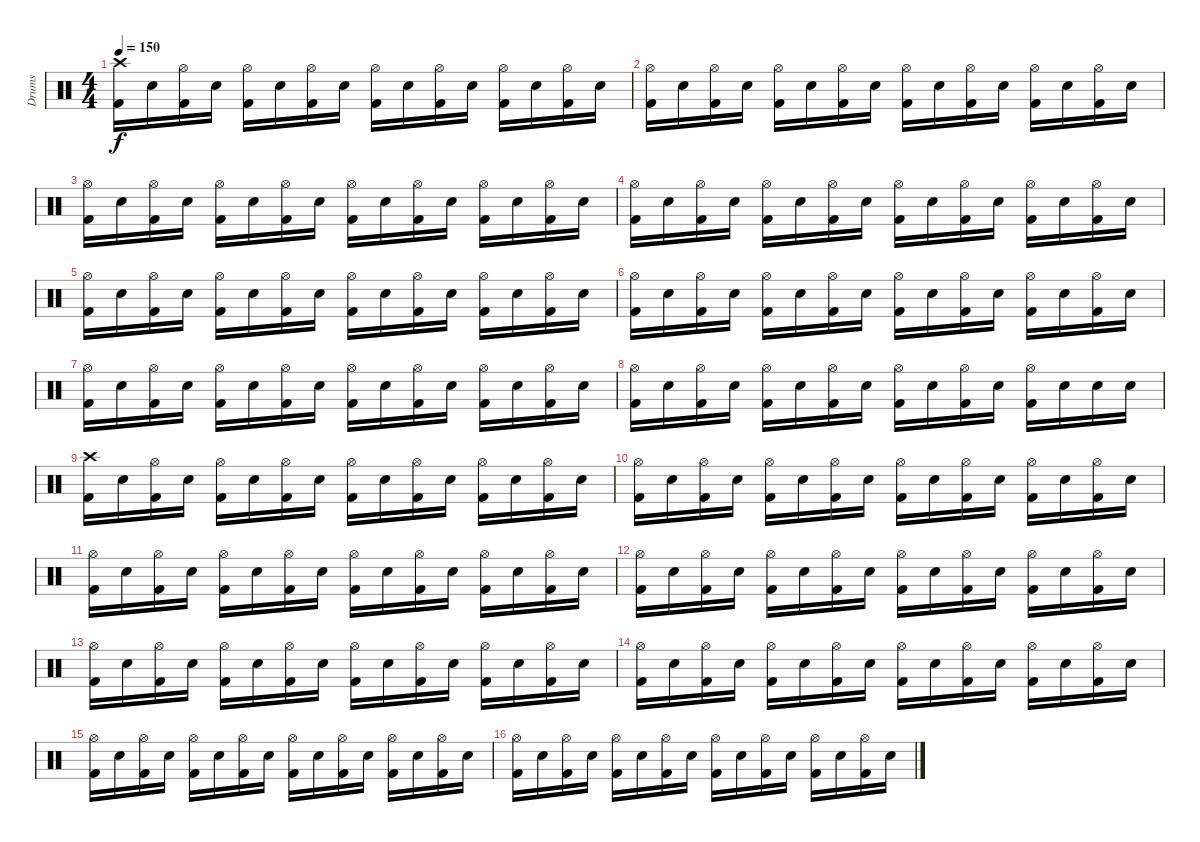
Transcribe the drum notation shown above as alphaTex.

\track ("Drums" "Drums") {instrument percussion}
\staff {score}
\articulation defaults
\ts (4 4)
\tempo 150
\clef neutral
\ks c
("Kick (hit) 2" "Crash high (hit)").16{dy f} "Electric Snare (hit)".16 ("Kick (hit) 2" "Hi-Hat (open)").16 "Electric Snare (hit)".16 ("Kick (hit) 2" "Hi-Hat (open)").16 "Electric Snare (hit)".16 ("Kick (hit) 2" "Hi-Hat (open)").16 "Electric Snare (hit)".16 ("Kick (hit) 2" "Hi-Hat (open)").16 "Electric Snare (hit)".16 ("Kick (hit) 2" "Hi-Hat (open)").16 "Electric Snare (hit)".16 ("Kick (hit) 2" "Hi-Hat (open)").16 "Electric Snare (hit)".16 ("Kick (hit) 2" "Hi-Hat (open)").16 "Electric Snare (hit)".16 |
("Kick (hit) 2" "Hi-Hat (open)").16 "Electric Snare (hit)".16 ("Kick (hit) 2" "Hi-Hat (open)").16 "Electric Snare (hit)".16 ("Kick (hit) 2" "Hi-Hat (open)").16 "Electric Snare (hit)".16 ("Kick (hit) 2" "Hi-Hat (open)").16 "Electric Snare (hit)".16 ("Kick (hit) 2" "Hi-Hat (open)").16 "Electric Snare (hit)".16 ("Kick (hit) 2" "Hi-Hat (open)").16 "Electric Snare (hit)".16 ("Kick (hit) 2" "Hi-Hat (open)").16 "Electric Snare (hit)".16 ("Kick (hit) 2" "Hi-Hat (open)").16 "Electric Snare (hit)".16 |
("Kick (hit) 2" "Hi-Hat (open)").16 "Electric Snare (hit)".16 ("Kick (hit) 2" "Hi-Hat (open)").16 "Electric Snare (hit)".16 ("Kick (hit) 2" "Hi-Hat (open)").16 "Electric Snare (hit)".16 ("Kick (hit) 2" "Hi-Hat (open)").16 "Electric Snare (hit)".16 ("Kick (hit) 2" "Hi-Hat (open)").16 "Electric Snare (hit)".16 ("Kick (hit) 2" "Hi-Hat (open)").16 "Electric Snare (hit)".16 ("Kick (hit) 2" "Hi-Hat (open)").16 "Electric Snare (hit)".16 ("Kick (hit) 2" "Hi-Hat (open)").16 "Electric Snare (hit)".16 |
("Kick (hit) 2" "Hi-Hat (open)").16 "Electric Snare (hit)".16 ("Kick (hit) 2" "Hi-Hat (open)").16 "Electric Snare (hit)".16 ("Kick (hit) 2" "Hi-Hat (open)").16 "Electric Snare (hit)".16 ("Kick (hit) 2" "Hi-Hat (open)").16 "Electric Snare (hit)".16 ("Kick (hit) 2" "Hi-Hat (open)").16 "Electric Snare (hit)".16 ("Kick (hit) 2" "Hi-Hat (open)").16 "Electric Snare (hit)".16 ("Kick (hit) 2" "Hi-Hat (open)").16 "Electric Snare (hit)".16 ("Kick (hit) 2" "Hi-Hat (open)").16 "Electric Snare (hit)".16 |
("Kick (hit) 2" "Hi-Hat (open)").16 "Electric Snare (hit)".16 ("Kick (hit) 2" "Hi-Hat (open)").16 "Electric Snare (hit)".16 ("Kick (hit) 2" "Hi-Hat (open)").16 "Electric Snare (hit)".16 ("Kick (hit) 2" "Hi-Hat (open)").16 "Electric Snare (hit)".16 ("Kick (hit) 2" "Hi-Hat (open)").16 "Electric Snare (hit)".16 ("Kick (hit) 2" "Hi-Hat (open)").16 "Electric Snare (hit)".16 ("Kick (hit) 2" "Hi-Hat (open)").16 "Electric Snare (hit)".16 ("Kick (hit) 2" "Hi-Hat (open)").16 "Electric Snare (hit)".16 |
("Kick (hit) 2" "Hi-Hat (open)").16 "Electric Snare (hit)".16 ("Kick (hit) 2" "Hi-Hat (open)").16 "Electric Snare (hit)".16 ("Kick (hit) 2" "Hi-Hat (open)").16 "Electric Snare (hit)".16 ("Kick (hit) 2" "Hi-Hat (open)").16 "Electric Snare (hit)".16 ("Kick (hit) 2" "Hi-Hat (open)").16 "Electric Snare (hit)".16 ("Kick (hit) 2" "Hi-Hat (open)").16 "Electric Snare (hit)".16 ("Kick (hit) 2" "Hi-Hat (open)").16 "Electric Snare (hit)".16 ("Kick (hit) 2" "Hi-Hat (open)").16 "Electric Snare (hit)".16 |
("Kick (hit) 2" "Hi-Hat (open)").16 "Electric Snare (hit)".16 ("Kick (hit) 2" "Hi-Hat (open)").16 "Electric Snare (hit)".16 ("Kick (hit) 2" "Hi-Hat (open)").16 "Electric Snare (hit)".16 ("Kick (hit) 2" "Hi-Hat (open)").16 "Electric Snare (hit)".16 ("Kick (hit) 2" "Hi-Hat (open)").16 "Electric Snare (hit)".16 ("Kick (hit) 2" "Hi-Hat (open)").16 "Electric Snare (hit)".16 ("Kick (hit) 2" "Hi-Hat (open)").16 "Electric Snare (hit)".16 ("Kick (hit) 2" "Hi-Hat (open)").16 "Electric Snare (hit)".16 |
("Kick (hit) 2" "Hi-Hat (open)").16 "Electric Snare (hit)".16 ("Kick (hit) 2" "Hi-Hat (open)").16 "Electric Snare (hit)".16 ("Kick (hit) 2" "Hi-Hat (open)").16 "Electric Snare (hit)".16 ("Kick (hit) 2" "Hi-Hat (open)").16 "Electric Snare (hit)".16 ("Kick (hit) 2" "Hi-Hat (open)").16 "Electric Snare (hit)".16 ("Kick (hit) 2" "Hi-Hat (open)").16 "Electric Snare (hit)".16 ("Kick (hit) 2" "Hi-Hat (open)").16 "Electric Snare (hit)".16 "Electric Snare (hit)".16 "Electric Snare (hit)".16 |
("Kick (hit) 2" "Crash high (hit)").16 "Electric Snare (hit)".16 ("Kick (hit) 2" "Hi-Hat (open)").16 "Electric Snare (hit)".16 ("Kick (hit) 2" "Hi-Hat (open)").16 "Electric Snare (hit)".16 ("Kick (hit) 2" "Hi-Hat (open)").16 "Electric Snare (hit)".16 ("Kick (hit) 2" "Hi-Hat (open)").16 "Electric Snare (hit)".16 ("Kick (hit) 2" "Hi-Hat (open)").16 "Electric Snare (hit)".16 ("Kick (hit) 2" "Hi-Hat (open)").16 "Electric Snare (hit)".16 ("Kick (hit) 2" "Hi-Hat (open)").16 "Electric Snare (hit)".16 |
("Kick (hit) 2" "Hi-Hat (open)").16 "Electric Snare (hit)".16 ("Kick (hit) 2" "Hi-Hat (open)").16 "Electric Snare (hit)".16 ("Kick (hit) 2" "Hi-Hat (open)").16 "Electric Snare (hit)".16 ("Kick (hit) 2" "Hi-Hat (open)").16 "Electric Snare (hit)".16 ("Kick (hit) 2" "Hi-Hat (open)").16 "Electric Snare (hit)".16 ("Kick (hit) 2" "Hi-Hat (open)").16 "Electric Snare (hit)".16 ("Kick (hit) 2" "Hi-Hat (open)").16 "Electric Snare (hit)".16 ("Kick (hit) 2" "Hi-Hat (open)").16 "Electric Snare (hit)".16 |
("Kick (hit) 2" "Hi-Hat (open)").16 "Electric Snare (hit)".16 ("Kick (hit) 2" "Hi-Hat (open)").16 "Electric Snare (hit)".16 ("Kick (hit) 2" "Hi-Hat (open)").16 "Electric Snare (hit)".16 ("Kick (hit) 2" "Hi-Hat (open)").16 "Electric Snare (hit)".16 ("Kick (hit) 2" "Hi-Hat (open)").16 "Electric Snare (hit)".16 ("Kick (hit) 2" "Hi-Hat (open)").16 "Electric Snare (hit)".16 ("Kick (hit) 2" "Hi-Hat (open)").16 "Electric Snare (hit)".16 ("Kick (hit) 2" "Hi-Hat (open)").16 "Electric Snare (hit)".16 |
("Kick (hit) 2" "Hi-Hat (open)").16 "Electric Snare (hit)".16 ("Kick (hit) 2" "Hi-Hat (open)").16 "Electric Snare (hit)".16 ("Kick (hit) 2" "Hi-Hat (open)").16 "Electric Snare (hit)".16 ("Kick (hit) 2" "Hi-Hat (open)").16 "Electric Snare (hit)".16 ("Kick (hit) 2" "Hi-Hat (open)").16 "Electric Snare (hit)".16 ("Kick (hit) 2" "Hi-Hat (open)").16 "Electric Snare (hit)".16 ("Kick (hit) 2" "Hi-Hat (open)").16 "Electric Snare (hit)".16 ("Kick (hit) 2" "Hi-Hat (open)").16 "Electric Snare (hit)".16 |
("Kick (hit) 2" "Hi-Hat (open)").16 "Electric Snare (hit)".16 ("Kick (hit) 2" "Hi-Hat (open)").16 "Electric Snare (hit)".16 ("Kick (hit) 2" "Hi-Hat (open)").16 "Electric Snare (hit)".16 ("Kick (hit) 2" "Hi-Hat (open)").16 "Electric Snare (hit)".16 ("Kick (hit) 2" "Hi-Hat (open)").16 "Electric Snare (hit)".16 ("Kick (hit) 2" "Hi-Hat (open)").16 "Electric Snare (hit)".16 ("Kick (hit) 2" "Hi-Hat (open)").16 "Electric Snare (hit)".16 ("Kick (hit) 2" "Hi-Hat (open)").16 "Electric Snare (hit)".16 |
("Kick (hit) 2" "Hi-Hat (open)").16 "Electric Snare (hit)".16 ("Kick (hit) 2" "Hi-Hat (open)").16 "Electric Snare (hit)".16 ("Kick (hit) 2" "Hi-Hat (open)").16 "Electric Snare (hit)".16 ("Kick (hit) 2" "Hi-Hat (open)").16 "Electric Snare (hit)".16 ("Kick (hit) 2" "Hi-Hat (open)").16 "Electric Snare (hit)".16 ("Kick (hit) 2" "Hi-Hat (open)").16 "Electric Snare (hit)".16 ("Kick (hit) 2" "Hi-Hat (open)").16 "Electric Snare (hit)".16 ("Kick (hit) 2" "Hi-Hat (open)").16 "Electric Snare (hit)".16 |
("Kick (hit) 2" "Hi-Hat (open)").16 "Electric Snare (hit)".16 ("Kick (hit) 2" "Hi-Hat (open)").16 "Electric Snare (hit)".16 ("Kick (hit) 2" "Hi-Hat (open)").16 "Electric Snare (hit)".16 ("Kick (hit) 2" "Hi-Hat (open)").16 "Electric Snare (hit)".16 ("Kick (hit) 2" "Hi-Hat (open)").16 "Electric Snare (hit)".16 ("Kick (hit) 2" "Hi-Hat (open)").16 "Electric Snare (hit)".16 ("Kick (hit) 2" "Hi-Hat (open)").16 "Electric Snare (hit)".16 ("Kick (hit) 2" "Hi-Hat (open)").16 "Electric Snare (hit)".16 |
("Kick (hit) 2" "Hi-Hat (open)").16 "Electric Snare (hit)".16 ("Kick (hit) 2" "Hi-Hat (open)").16 "Electric Snare (hit)".16 ("Kick (hit) 2" "Hi-Hat (open)").16 "Electric Snare (hit)".16 ("Kick (hit) 2" "Hi-Hat (open)").16 "Electric Snare (hit)".16 ("Kick (hit) 2" "Hi-Hat (open)").16 "Electric Snare (hit)".16 ("Kick (hit) 2" "Hi-Hat (open)").16 "Electric Snare (hit)".16 ("Kick (hit) 2" "Hi-Hat (open)").16 "Electric Snare (hit)".16 ("Kick (hit) 2" "Hi-Hat (open)").16 "Electric Snare (hit)".16
